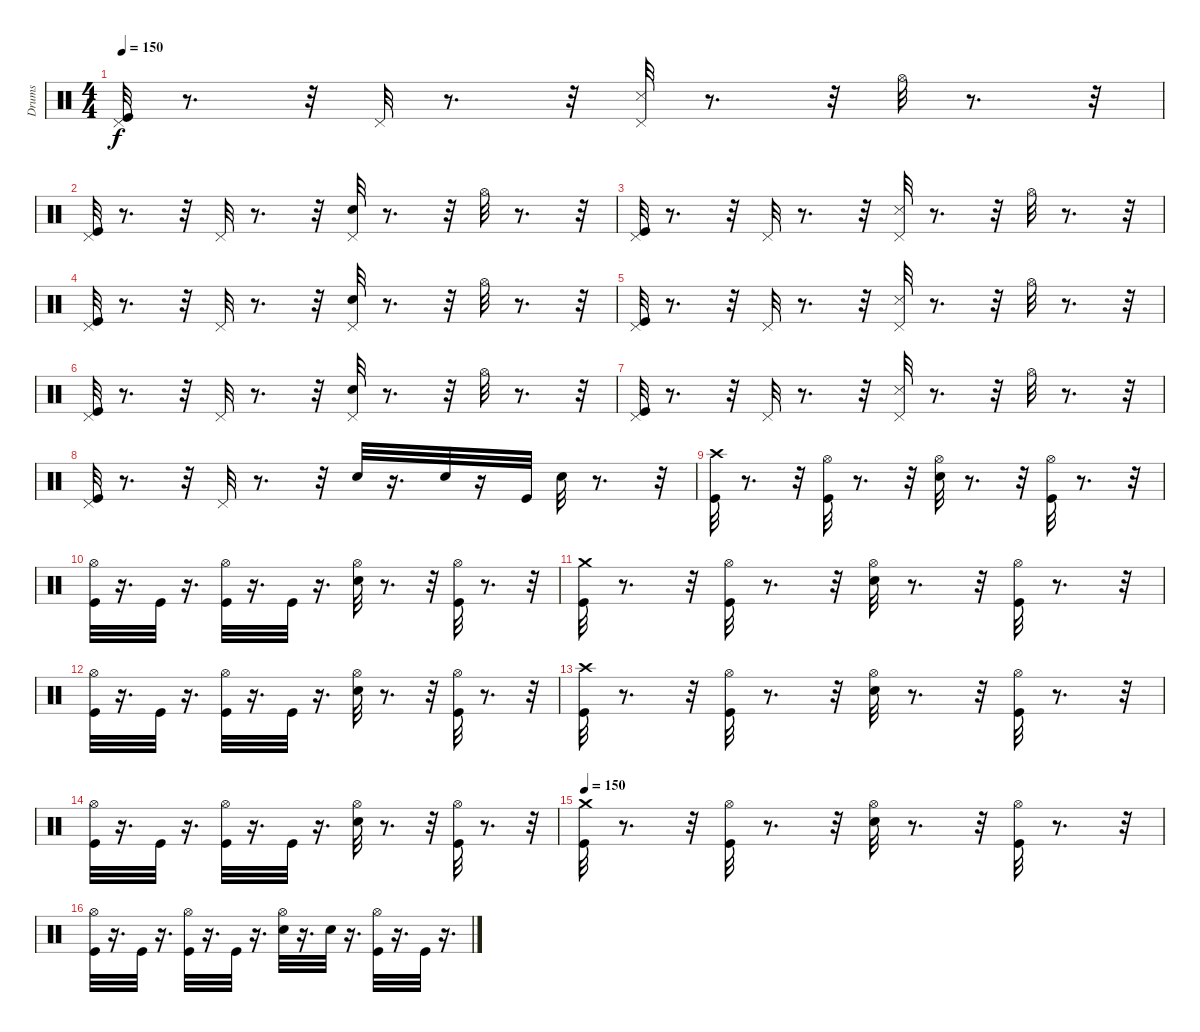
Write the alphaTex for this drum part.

\track ("Drums" "Drums") {instrument percussion}
\staff {score}
\articulation defaults
\ts (4 4)
\tempo 150
\clef neutral
\ks c
("Pedal Hi-Hat (hit)" "Kick (hit)").32{dy f} r.8{d} r.32 "Pedal Hi-Hat (hit)".32 r.8{d} r.32 ("Snare (side stick) 3" "Pedal Hi-Hat (hit)").32 r.8{d} r.32 "Hi-Hat (open)".32 r.8{d} r.32 |
("Pedal Hi-Hat (hit)" "Kick (hit)").32 r.8{d} r.32 "Pedal Hi-Hat (hit)".32 r.8{d} r.32 ("Electric Snare (hit)" "Pedal Hi-Hat (hit)").32 r.8{d} r.32 "Hi-Hat (open)".32 r.8{d} r.32 |
("Pedal Hi-Hat (hit)" "Kick (hit)").32 r.8{d} r.32 "Pedal Hi-Hat (hit)".32 r.8{d} r.32 ("Snare (side stick) 3" "Pedal Hi-Hat (hit)").32 r.8{d} r.32 "Hi-Hat (open)".32 r.8{d} r.32 |
("Pedal Hi-Hat (hit)" "Kick (hit)").32 r.8{d} r.32 "Pedal Hi-Hat (hit)".32 r.8{d} r.32 ("Electric Snare (hit)" "Pedal Hi-Hat (hit)").32 r.8{d} r.32 "Hi-Hat (open)".32 r.8{d} r.32 |
("Pedal Hi-Hat (hit)" "Kick (hit)").32 r.8{d} r.32 "Pedal Hi-Hat (hit)".32 r.8{d} r.32 ("Snare (side stick) 3" "Pedal Hi-Hat (hit)").32 r.8{d} r.32 "Hi-Hat (open)".32 r.8{d} r.32 |
("Pedal Hi-Hat (hit)" "Kick (hit)").32 r.8{d} r.32 "Pedal Hi-Hat (hit)".32 r.8{d} r.32 ("Electric Snare (hit)" "Pedal Hi-Hat (hit)").32 r.8{d} r.32 "Hi-Hat (open)".32 r.8{d} r.32 |
("Pedal Hi-Hat (hit)" "Kick (hit)").32 r.8{d} r.32 "Pedal Hi-Hat (hit)".32 r.8{d} r.32 ("Snare (side stick) 3" "Pedal Hi-Hat (hit)").32 r.8{d} r.32 "Hi-Hat (open)".32 r.8{d} r.32 |
("Pedal Hi-Hat (hit)" "Kick (hit)").32 r.8{d} r.32 "Pedal Hi-Hat (hit)".32 r.8{d} r.32 "Electric Snare (hit)".32 r.16{d} "Electric Snare (hit)".32 r.16 "Kick (hit)".32 "Electric Snare (hit)".32 r.8{d} r.32 |
("Kick (hit)" "Crash high (hit)").32 r.8{d} r.32 ("Hi-Hat (open)" "Kick (hit)").32 r.8{d} r.32 ("Hi-Hat (open)" "Electric Snare (hit)").32 r.8{d} r.32 ("Kick (hit)" "Hi-Hat (open)").32 r.8{d} r.32 |
("Hi-Hat (open)" "Kick (hit)").32 r.16{d} "Kick (hit)".32 r.16{d} ("Hi-Hat (open)" "Kick (hit)").32 r.16{d} "Kick (hit)".32 r.16{d} ("Electric Snare (hit)" "Hi-Hat (open)").32 r.8{d} r.32 ("Hi-Hat (open)" "Kick (hit)").32 r.8{d} r.32 |
("Kick (hit)" "Crash medium (hit)").32 r.8{d} r.32 ("Hi-Hat (open)" "Kick (hit)").32 r.8{d} r.32 ("Hi-Hat (open)" "Electric Snare (hit)").32 r.8{d} r.32 ("Kick (hit)" "Hi-Hat (open)").32 r.8{d} r.32 |
("Hi-Hat (open)" "Kick (hit)").32 r.16{d} "Kick (hit)".32 r.16{d} ("Hi-Hat (open)" "Kick (hit)").32 r.16{d} "Kick (hit)".32 r.16{d} ("Electric Snare (hit)" "Hi-Hat (open)").32 r.8{d} r.32 ("Hi-Hat (open)" "Kick (hit)").32 r.8{d} r.32 |
("Kick (hit)" "Crash high (hit)").32 r.8{d} r.32 ("Hi-Hat (open)" "Kick (hit)").32 r.8{d} r.32 ("Hi-Hat (open)" "Electric Snare (hit)").32 r.8{d} r.32 ("Kick (hit)" "Hi-Hat (open)").32 r.8{d} r.32 |
("Hi-Hat (open)" "Kick (hit)").32 r.16{d} "Kick (hit)".32 r.16{d} ("Hi-Hat (open)" "Kick (hit)").32 r.16{d} "Kick (hit)".32 r.16{d} ("Electric Snare (hit)" "Hi-Hat (open)").32 r.8{d} r.32 ("Hi-Hat (open)" "Kick (hit)").32 r.8{d} r.32 |
\tempo 150
("Kick (hit)" "Crash medium (hit)").32 r.8{d} r.32 ("Hi-Hat (open)" "Kick (hit)").32 r.8{d} r.32 ("Hi-Hat (open)" "Electric Snare (hit)").32 r.8{d} r.32 ("Kick (hit)" "Hi-Hat (open)").32 r.8{d} r.32 |
("Hi-Hat (open)" "Kick (hit)").32 r.16{d} "Kick (hit)".32 r.16{d} ("Hi-Hat (open)" "Kick (hit)").32 r.16{d} "Kick (hit)".32 r.16{d} ("Electric Snare (hit)" "Hi-Hat (open)").32 r.16{d} "Electric Snare (hit)".32 r.16{d} ("Hi-Hat (open)" "Kick (hit)").32 r.16{d} "Kick (hit)".32 r.16{d}
